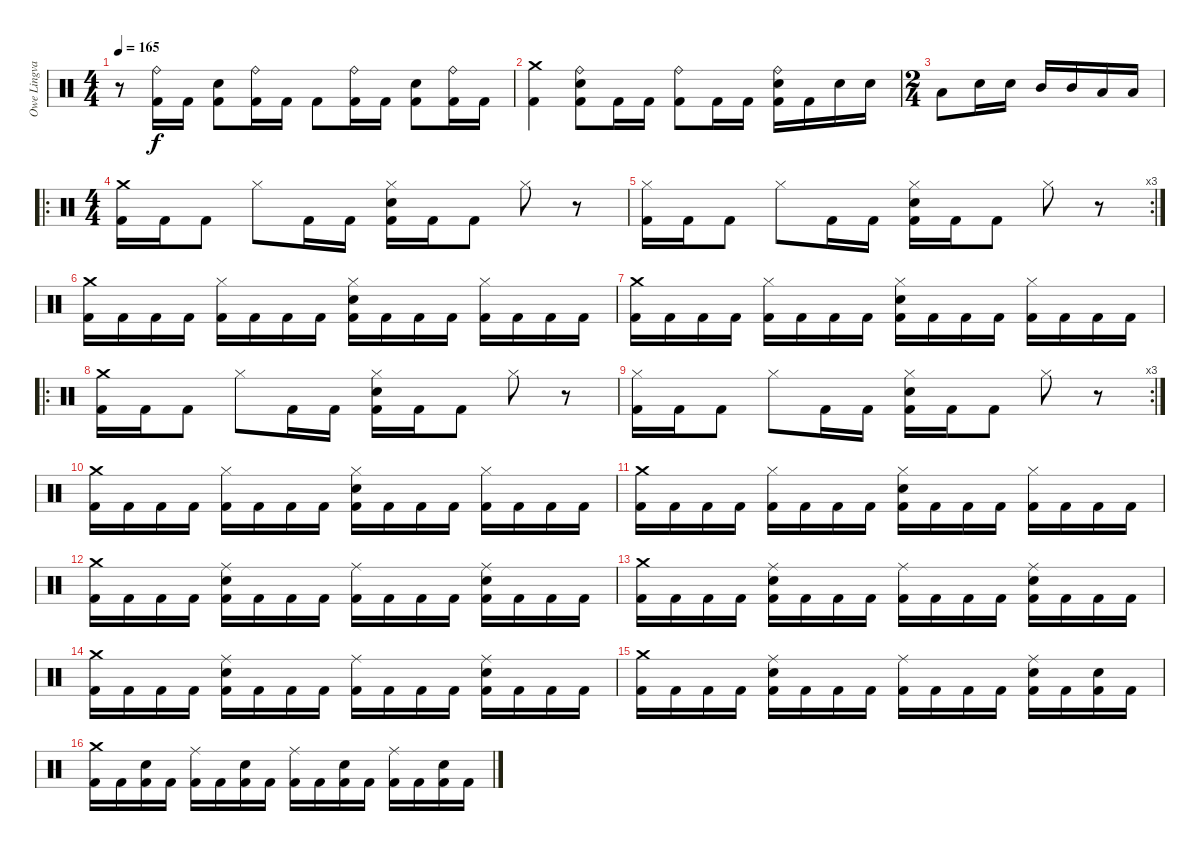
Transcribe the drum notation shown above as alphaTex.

\track ("Owe Lingvall" "Owe Lingva") {instrument percussion}
\staff {score}
\articulation defaults
\ts (4 4)
\tempo 165
\clef neutral
\ks c
r.8{dy f} ("Ride (bell)" "Kick (hit) 2").16 "Kick (hit) 2".16 ("Snare (hit) 2" "Kick (hit) 2").8 ("Ride (bell)" "Kick (hit) 2").16 "Kick (hit) 2".16 "Kick (hit) 2".8 ("Ride (bell)" "Kick (hit) 2").16 "Kick (hit) 2".16 ("Snare (hit) 2" "Kick (hit) 2").8 ("Ride (bell)" "Kick (hit) 2").16 "Kick (hit) 2".16 |
("Crash medium (hit)" "Kick (hit) 2").4 ("Ride (bell)" "Snare (hit) 2" "Kick (hit) 2").8 "Kick (hit) 2".16 "Kick (hit) 2".16 ("Ride (bell)" "Kick (hit) 2").8 "Kick (hit) 2".16 "Kick (hit) 2".16 ("Ride (bell)" "Snare (hit) 2" "Kick (hit) 2").16 "Kick (hit) 2".16 "Snare (hit) 2".16 "Snare (hit) 2".16 |
\ts (2 4)
"Low Tom (hit)".8 "Snare (hit) 2".16 "Snare (hit) 2".16 "Mid Tom (hit)".16 "Mid Tom (hit)".16 "Low Tom (hit)".16 "Low Tom (hit)".16 |
\ro
\ts (4 4)
("Crash medium (hit)" "Kick (hit) 2").16 "Kick (hit) 2".16 "Kick (hit) 2".8 "Hi-Hat (closed)".8 "Kick (hit) 2".16 "Kick (hit) 2".16 ("Hi-Hat (closed)" "Snare (hit) 2" "Kick (hit) 2").16 "Kick (hit) 2".16 "Kick (hit) 2".8 "Hi-Hat (closed)".8 r.8 |
\rc 3
("Hi-Hat (closed)" "Kick (hit) 2").16 "Kick (hit) 2".16 "Kick (hit) 2".8 "Hi-Hat (closed)".8 "Kick (hit) 2".16 "Kick (hit) 2".16 ("Hi-Hat (closed)" "Snare (hit) 2" "Kick (hit) 2").16 "Kick (hit) 2".16 "Kick (hit) 2".8 "Hi-Hat (closed)".8 r.8 |
("Crash medium (hit)" "Kick (hit) 2").16 "Kick (hit) 2".16 "Kick (hit) 2".16 "Kick (hit) 2".16 ("Hi-Hat (closed)" "Kick (hit) 2").16 "Kick (hit) 2".16 "Kick (hit) 2".16 "Kick (hit) 2".16 ("Hi-Hat (closed)" "Snare (hit) 2" "Kick (hit) 2").16 "Kick (hit) 2".16 "Kick (hit) 2".16 "Kick (hit) 2".16 ("Hi-Hat (closed)" "Kick (hit) 2").16 "Kick (hit) 2".16 "Kick (hit) 2".16 "Kick (hit) 2".16 |
("Crash medium (hit)" "Kick (hit) 2").16 "Kick (hit) 2".16 "Kick (hit) 2".16 "Kick (hit) 2".16 ("Hi-Hat (closed)" "Kick (hit) 2").16 "Kick (hit) 2".16 "Kick (hit) 2".16 "Kick (hit) 2".16 ("Hi-Hat (closed)" "Snare (hit) 2" "Kick (hit) 2").16 "Kick (hit) 2".16 "Kick (hit) 2".16 "Kick (hit) 2".16 ("Hi-Hat (closed)" "Kick (hit) 2").16 "Kick (hit) 2".16 "Kick (hit) 2".16 "Kick (hit) 2".16 |
\ro
("Crash medium (hit)" "Kick (hit) 2").16 "Kick (hit) 2".16 "Kick (hit) 2".8 "Hi-Hat (closed)".8 "Kick (hit) 2".16 "Kick (hit) 2".16 ("Hi-Hat (closed)" "Snare (hit) 2" "Kick (hit) 2").16 "Kick (hit) 2".16 "Kick (hit) 2".8 "Hi-Hat (closed)".8 r.8 |
\rc 3
("Hi-Hat (closed)" "Kick (hit) 2").16 "Kick (hit) 2".16 "Kick (hit) 2".8 "Hi-Hat (closed)".8 "Kick (hit) 2".16 "Kick (hit) 2".16 ("Hi-Hat (closed)" "Snare (hit) 2" "Kick (hit) 2").16 "Kick (hit) 2".16 "Kick (hit) 2".8 "Hi-Hat (closed)".8 r.8 |
("Crash medium (hit)" "Kick (hit) 2").16 "Kick (hit) 2".16 "Kick (hit) 2".16 "Kick (hit) 2".16 ("Hi-Hat (closed)" "Kick (hit) 2").16 "Kick (hit) 2".16 "Kick (hit) 2".16 "Kick (hit) 2".16 ("Hi-Hat (closed)" "Snare (hit) 2" "Kick (hit) 2").16 "Kick (hit) 2".16 "Kick (hit) 2".16 "Kick (hit) 2".16 ("Hi-Hat (closed)" "Kick (hit) 2").16 "Kick (hit) 2".16 "Kick (hit) 2".16 "Kick (hit) 2".16 |
("Crash medium (hit)" "Kick (hit) 2").16 "Kick (hit) 2".16 "Kick (hit) 2".16 "Kick (hit) 2".16 ("Hi-Hat (closed)" "Kick (hit) 2").16 "Kick (hit) 2".16 "Kick (hit) 2".16 "Kick (hit) 2".16 ("Hi-Hat (closed)" "Snare (hit) 2" "Kick (hit) 2").16 "Kick (hit) 2".16 "Kick (hit) 2".16 "Kick (hit) 2".16 ("Hi-Hat (closed)" "Kick (hit) 2").16 "Kick (hit) 2".16 "Kick (hit) 2".16 "Kick (hit) 2".16 |
("Crash medium (hit)" "Kick (hit) 2").16 "Kick (hit) 2".16 "Kick (hit) 2".16 "Kick (hit) 2".16 ("Ride (middle)" "Snare (hit) 2" "Kick (hit) 2").16 "Kick (hit) 2".16 "Kick (hit) 2".16 "Kick (hit) 2".16 ("Ride (middle)" "Kick (hit) 2").16 "Kick (hit) 2".16 "Kick (hit) 2".16 "Kick (hit) 2".16 ("Ride (middle)" "Snare (hit) 2" "Kick (hit) 2").16 "Kick (hit) 2".16 "Kick (hit) 2".16 "Kick (hit) 2".16 |
("Crash medium (hit)" "Kick (hit) 2").16 "Kick (hit) 2".16 "Kick (hit) 2".16 "Kick (hit) 2".16 ("Ride (middle)" "Snare (hit) 2" "Kick (hit) 2").16 "Kick (hit) 2".16 "Kick (hit) 2".16 "Kick (hit) 2".16 ("Ride (middle)" "Kick (hit) 2").16 "Kick (hit) 2".16 "Kick (hit) 2".16 "Kick (hit) 2".16 ("Ride (middle)" "Snare (hit) 2" "Kick (hit) 2").16 "Kick (hit) 2".16 "Kick (hit) 2".16 "Kick (hit) 2".16 |
("Crash medium (hit)" "Kick (hit) 2").16 "Kick (hit) 2".16 "Kick (hit) 2".16 "Kick (hit) 2".16 ("Ride (middle)" "Snare (hit) 2" "Kick (hit) 2").16 "Kick (hit) 2".16 "Kick (hit) 2".16 "Kick (hit) 2".16 ("Ride (middle)" "Kick (hit) 2").16 "Kick (hit) 2".16 "Kick (hit) 2".16 "Kick (hit) 2".16 ("Ride (middle)" "Snare (hit) 2" "Kick (hit) 2").16 "Kick (hit) 2".16 "Kick (hit) 2".16 "Kick (hit) 2".16 |
("Crash medium (hit)" "Kick (hit) 2").16 "Kick (hit) 2".16 "Kick (hit) 2".16 "Kick (hit) 2".16 ("Ride (middle)" "Snare (hit) 2" "Kick (hit) 2").16 "Kick (hit) 2".16 "Kick (hit) 2".16 "Kick (hit) 2".16 ("Ride (middle)" "Kick (hit) 2").16 "Kick (hit) 2".16 "Kick (hit) 2".16 "Kick (hit) 2".16 ("Ride (middle)" "Snare (hit) 2" "Kick (hit) 2").16 "Kick (hit) 2".16 ("Snare (hit) 2" "Kick (hit) 2").16 "Kick (hit) 2".16 |
("Crash medium (hit)" "Kick (hit) 2").16 "Kick (hit) 2".16 ("Snare (hit) 2" "Kick (hit) 2").16 "Kick (hit) 2".16 ("Ride (middle)" "Kick (hit) 2").16 "Kick (hit) 2".16 ("Snare (hit) 2" "Kick (hit) 2").16 "Kick (hit) 2".16 ("Ride (middle)" "Kick (hit) 2").16 "Kick (hit) 2".16 ("Snare (hit) 2" "Kick (hit) 2").16 "Kick (hit) 2".16 ("Ride (middle)" "Kick (hit) 2").16 "Kick (hit) 2".16 ("Snare (hit) 2" "Kick (hit) 2").16 "Kick (hit) 2".16
